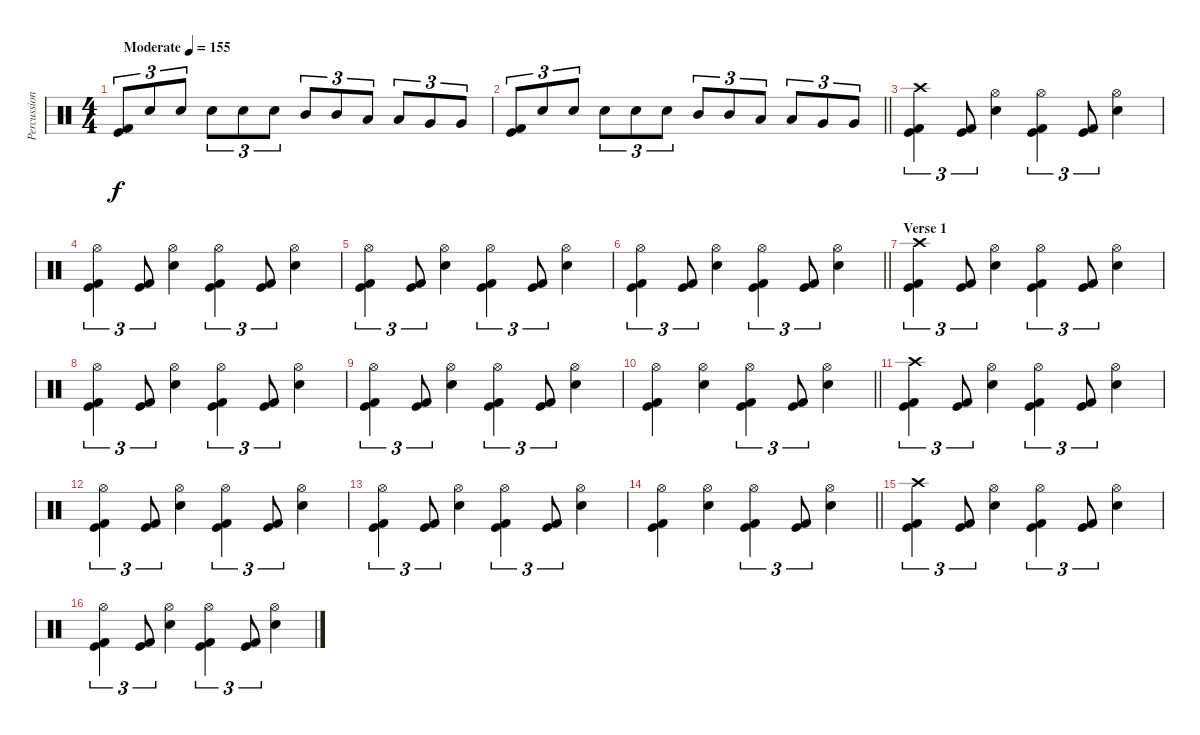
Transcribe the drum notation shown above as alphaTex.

\track ("Percussion" "Percussion") {instrument percussion}
\staff {score}
\articulation defaults
\ts (4 4)
\tempo (155 "Moderate")
\clef neutral
\ks c
("Kick (hit)" "Kick (hit) 2").8{tu (3 2) dy f} "Electric Snare (hit)".8{tu (3 2)} "Electric Snare (hit)".8{tu (3 2)} "Electric Snare (hit)".8{tu (3 2)} "Electric Snare (hit)".8{tu (3 2)} "Electric Snare (hit)".8{tu (3 2)} "Mid Tom (hit)".8{tu (3 2)} "Mid Tom (hit)".8{tu (3 2)} "Low Tom (hit)".8{tu (3 2)} "Low Tom (hit)".8{tu (3 2)} "Very Low Tom (hit)".8{tu (3 2)} "Very Low Tom (hit)".8{tu (3 2)} |
\barLineRight lightlight
("Kick (hit)" "Kick (hit) 2").8{tu (3 2)} "Electric Snare (hit)".8{tu (3 2)} "Electric Snare (hit)".8{tu (3 2)} "Electric Snare (hit)".8{tu (3 2)} "Electric Snare (hit)".8{tu (3 2)} "Electric Snare (hit)".8{tu (3 2)} "Mid Tom (hit)".8{tu (3 2)} "Mid Tom (hit)".8{tu (3 2)} "Low Tom (hit)".8{tu (3 2)} "Low Tom (hit)".8{tu (3 2)} "Very Low Tom (hit)".8{tu (3 2)} "Very Low Tom (hit)".8{tu (3 2)} |
\section ("" "")
("Crash high (hit)" "Kick (hit)" "Kick (hit) 2").4{tu (3 2)} ("Kick (hit)" "Kick (hit) 2").8{tu (3 2)} ("Hi-Hat (open)" "Electric Snare (hit)").4 ("Hi-Hat (open)" "Kick (hit)" "Kick (hit) 2").4{tu (3 2)} ("Kick (hit)" "Kick (hit) 2").8{tu (3 2)} ("Hi-Hat (open)" "Electric Snare (hit)").4 |
("Hi-Hat (open)" "Kick (hit)" "Kick (hit) 2").4{tu (3 2)} ("Kick (hit)" "Kick (hit) 2").8{tu (3 2)} ("Hi-Hat (open)" "Electric Snare (hit)").4 ("Hi-Hat (open)" "Kick (hit)" "Kick (hit) 2").4{tu (3 2)} ("Kick (hit)" "Kick (hit) 2").8{tu (3 2)} ("Hi-Hat (open)" "Electric Snare (hit)").4 |
("Hi-Hat (open)" "Kick (hit)" "Kick (hit) 2").4{tu (3 2)} ("Kick (hit)" "Kick (hit) 2").8{tu (3 2)} ("Hi-Hat (open)" "Electric Snare (hit)").4 ("Hi-Hat (open)" "Kick (hit)" "Kick (hit) 2").4{tu (3 2)} ("Kick (hit)" "Kick (hit) 2").8{tu (3 2)} ("Hi-Hat (open)" "Electric Snare (hit)").4 |
\barLineRight lightlight
("Hi-Hat (open)" "Kick (hit)" "Kick (hit) 2").4{tu (3 2)} ("Kick (hit)" "Kick (hit) 2").8{tu (3 2)} ("Hi-Hat (open)" "Electric Snare (hit)").4 ("Hi-Hat (open)" "Kick (hit)" "Kick (hit) 2").4{tu (3 2)} ("Kick (hit)" "Kick (hit) 2").8{tu (3 2)} ("Hi-Hat (open)" "Electric Snare (hit)").4 |
\section ("" "Verse 1")
("Crash high (hit)" "Kick (hit)" "Kick (hit) 2").4{tu (3 2)} ("Kick (hit)" "Kick (hit) 2").8{tu (3 2)} ("Hi-Hat (open)" "Electric Snare (hit)").4 ("Hi-Hat (open)" "Kick (hit)" "Kick (hit) 2").4{tu (3 2)} ("Kick (hit)" "Kick (hit) 2").8{tu (3 2)} ("Hi-Hat (open)" "Electric Snare (hit)").4 |
("Hi-Hat (open)" "Kick (hit)" "Kick (hit) 2").4{tu (3 2)} ("Kick (hit)" "Kick (hit) 2").8{tu (3 2)} ("Hi-Hat (open)" "Electric Snare (hit)").4 ("Hi-Hat (open)" "Kick (hit)" "Kick (hit) 2").4{tu (3 2)} ("Kick (hit)" "Kick (hit) 2").8{tu (3 2)} ("Hi-Hat (open)" "Electric Snare (hit)").4 |
("Hi-Hat (open)" "Kick (hit)" "Kick (hit) 2").4{tu (3 2)} ("Kick (hit)" "Kick (hit) 2").8{tu (3 2)} ("Hi-Hat (open)" "Electric Snare (hit)").4 ("Hi-Hat (open)" "Kick (hit)" "Kick (hit) 2").4{tu (3 2)} ("Kick (hit)" "Kick (hit) 2").8{tu (3 2)} ("Hi-Hat (open)" "Electric Snare (hit)").4 |
\barLineRight lightlight
("Hi-Hat (open)" "Kick (hit)" "Kick (hit) 2").4 ("Hi-Hat (open)" "Electric Snare (hit)").4 ("Hi-Hat (open)" "Kick (hit)" "Kick (hit) 2").4{tu (3 2)} ("Kick (hit)" "Kick (hit) 2").8{tu (3 2)} ("Hi-Hat (open)" "Electric Snare (hit)").4 |
("Crash high (hit)" "Kick (hit)" "Kick (hit) 2").4{tu (3 2)} ("Kick (hit)" "Kick (hit) 2").8{tu (3 2)} ("Hi-Hat (open)" "Electric Snare (hit)").4 ("Hi-Hat (open)" "Kick (hit)" "Kick (hit) 2").4{tu (3 2)} ("Kick (hit)" "Kick (hit) 2").8{tu (3 2)} ("Hi-Hat (open)" "Electric Snare (hit)").4 |
("Hi-Hat (open)" "Kick (hit)" "Kick (hit) 2").4{tu (3 2)} ("Kick (hit)" "Kick (hit) 2").8{tu (3 2)} ("Hi-Hat (open)" "Electric Snare (hit)").4 ("Hi-Hat (open)" "Kick (hit)" "Kick (hit) 2").4{tu (3 2)} ("Kick (hit)" "Kick (hit) 2").8{tu (3 2)} ("Hi-Hat (open)" "Electric Snare (hit)").4 |
("Hi-Hat (open)" "Kick (hit)" "Kick (hit) 2").4{tu (3 2)} ("Kick (hit)" "Kick (hit) 2").8{tu (3 2)} ("Hi-Hat (open)" "Electric Snare (hit)").4 ("Hi-Hat (open)" "Kick (hit)" "Kick (hit) 2").4{tu (3 2)} ("Kick (hit)" "Kick (hit) 2").8{tu (3 2)} ("Hi-Hat (open)" "Electric Snare (hit)").4 |
\barLineRight lightlight
("Hi-Hat (open)" "Kick (hit)" "Kick (hit) 2").4 ("Hi-Hat (open)" "Electric Snare (hit)").4 ("Hi-Hat (open)" "Kick (hit)" "Kick (hit) 2").4{tu (3 2)} ("Kick (hit)" "Kick (hit) 2").8{tu (3 2)} ("Hi-Hat (open)" "Electric Snare (hit)").4 |
\section ("" "")
("Crash high (hit)" "Kick (hit)" "Kick (hit) 2").4{tu (3 2)} ("Kick (hit)" "Kick (hit) 2").8{tu (3 2)} ("Hi-Hat (open)" "Electric Snare (hit)").4 ("Hi-Hat (open)" "Kick (hit)" "Kick (hit) 2").4{tu (3 2)} ("Kick (hit)" "Kick (hit) 2").8{tu (3 2)} ("Hi-Hat (open)" "Electric Snare (hit)").4 |
("Hi-Hat (open)" "Kick (hit)" "Kick (hit) 2").4{tu (3 2)} ("Kick (hit)" "Kick (hit) 2").8{tu (3 2)} ("Hi-Hat (open)" "Electric Snare (hit)").4 ("Hi-Hat (open)" "Kick (hit)" "Kick (hit) 2").4{tu (3 2)} ("Kick (hit)" "Kick (hit) 2").8{tu (3 2)} ("Hi-Hat (open)" "Electric Snare (hit)").4
